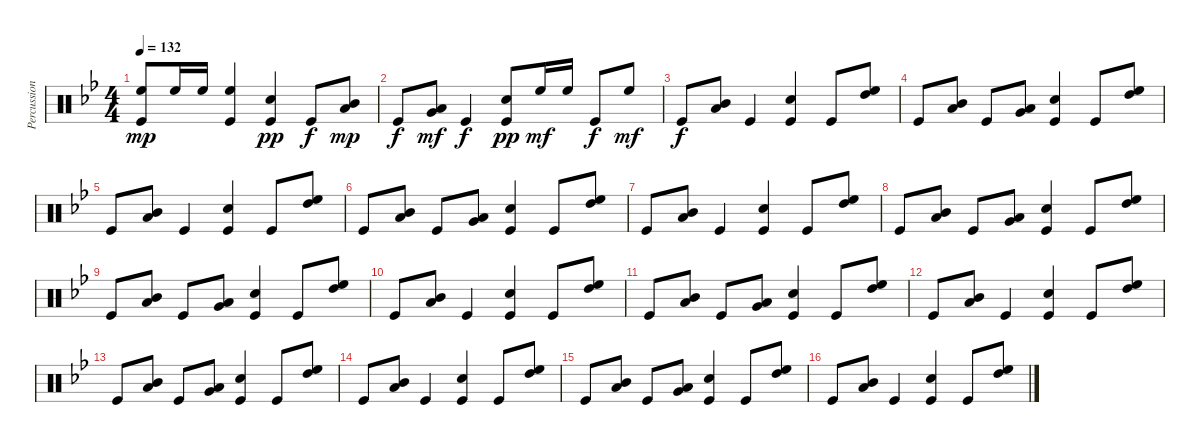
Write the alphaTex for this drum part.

\track ("Percussion" "Percussion") {instrument percussion}
\staff {score}
\articulation defaults
\ts (4 4)
\tempo 132
\clef neutral
\ks bb
("Kick (hit)" "High Floor Tom (hit)").8{dy mp} "High Floor Tom (hit)".16 "High Floor Tom (hit)".16 ("Kick (hit)" "High Floor Tom (hit)").4 ("Kick (hit)" "Snare (hit) 2").4{dy pp} "Kick (hit)".8{dy f} ("Mid Tom (hit)" "Low Tom (hit)").8{dy mp} |
"Kick (hit)".8{dy f} ("Very Low Tom (hit)" "Low Floor Tom (hit)").8{dy mf} "Kick (hit)".4{dy f} ("Kick (hit)" "Snare (hit) 2").8{dy pp} "High Floor Tom (hit)".16{dy mf} "High Floor Tom (hit)".16 "Kick (hit)".8{dy f} "High Floor Tom (hit)".8{dy mf} |
"Kick (hit)".8{dy f} ("Mid Tom (hit)" "Low Tom (hit)").8 "Kick (hit)".4 ("Kick (hit)" "Snare (hit) 2").4 "Kick (hit)".8 ("High Tom (hit)" "High Floor Tom (hit)").8 |
"Kick (hit)".8 ("Mid Tom (hit)" "Low Tom (hit)").8 "Kick (hit)".8 ("Very Low Tom (hit)" "Low Floor Tom (hit)").8 ("Kick (hit)" "Snare (hit) 2").4 "Kick (hit)".8 ("High Tom (hit)" "High Floor Tom (hit)").8 |
"Kick (hit)".8 ("Mid Tom (hit)" "Low Tom (hit)").8 "Kick (hit)".4 ("Kick (hit)" "Snare (hit) 2").4 "Kick (hit)".8 ("High Tom (hit)" "High Floor Tom (hit)").8 |
"Kick (hit)".8 ("Mid Tom (hit)" "Low Tom (hit)").8 "Kick (hit)".8 ("Very Low Tom (hit)" "Low Floor Tom (hit)").8 ("Kick (hit)" "Snare (hit) 2").4 "Kick (hit)".8 ("High Tom (hit)" "High Floor Tom (hit)").8 |
"Kick (hit)".8 ("Mid Tom (hit)" "Low Tom (hit)").8 "Kick (hit)".4 ("Kick (hit)" "Snare (hit) 2").4 "Kick (hit)".8 ("High Tom (hit)" "High Floor Tom (hit)").8 |
"Kick (hit)".8 ("Mid Tom (hit)" "Low Tom (hit)").8 "Kick (hit)".8 ("Very Low Tom (hit)" "Low Floor Tom (hit)").8 ("Kick (hit)" "Snare (hit) 2").4 "Kick (hit)".8 ("High Tom (hit)" "High Floor Tom (hit)").8 |
"Kick (hit)".8 ("Mid Tom (hit)" "Low Tom (hit)").8 "Kick (hit)".8 ("Very Low Tom (hit)" "Low Floor Tom (hit)").8 ("Kick (hit)" "Snare (hit) 2").4 "Kick (hit)".8 ("High Tom (hit)" "High Floor Tom (hit)").8 |
"Kick (hit)".8 ("Mid Tom (hit)" "Low Tom (hit)").8 "Kick (hit)".4 ("Kick (hit)" "Snare (hit) 2").4 "Kick (hit)".8 ("High Tom (hit)" "High Floor Tom (hit)").8 |
"Kick (hit)".8 ("Mid Tom (hit)" "Low Tom (hit)").8 "Kick (hit)".8 ("Very Low Tom (hit)" "Low Floor Tom (hit)").8 ("Kick (hit)" "Snare (hit) 2").4 "Kick (hit)".8 ("High Tom (hit)" "High Floor Tom (hit)").8 |
"Kick (hit)".8 ("Mid Tom (hit)" "Low Tom (hit)").8 "Kick (hit)".4 ("Kick (hit)" "Snare (hit) 2").4 "Kick (hit)".8 ("High Tom (hit)" "High Floor Tom (hit)").8 |
"Kick (hit)".8 ("Mid Tom (hit)" "Low Tom (hit)").8 "Kick (hit)".8 ("Very Low Tom (hit)" "Low Floor Tom (hit)").8 ("Kick (hit)" "Snare (hit) 2").4 "Kick (hit)".8 ("High Tom (hit)" "High Floor Tom (hit)").8 |
"Kick (hit)".8 ("Mid Tom (hit)" "Low Tom (hit)").8 "Kick (hit)".4 ("Kick (hit)" "Snare (hit) 2").4 "Kick (hit)".8 ("High Tom (hit)" "High Floor Tom (hit)").8 |
"Kick (hit)".8 ("Mid Tom (hit)" "Low Tom (hit)").8 "Kick (hit)".8 ("Very Low Tom (hit)" "Low Floor Tom (hit)").8 ("Kick (hit)" "Snare (hit) 2").4 "Kick (hit)".8 ("High Tom (hit)" "High Floor Tom (hit)").8 |
"Kick (hit)".8 ("Mid Tom (hit)" "Low Tom (hit)").8 "Kick (hit)".4 ("Kick (hit)" "Snare (hit) 2").4 "Kick (hit)".8 ("High Tom (hit)" "High Floor Tom (hit)").8
